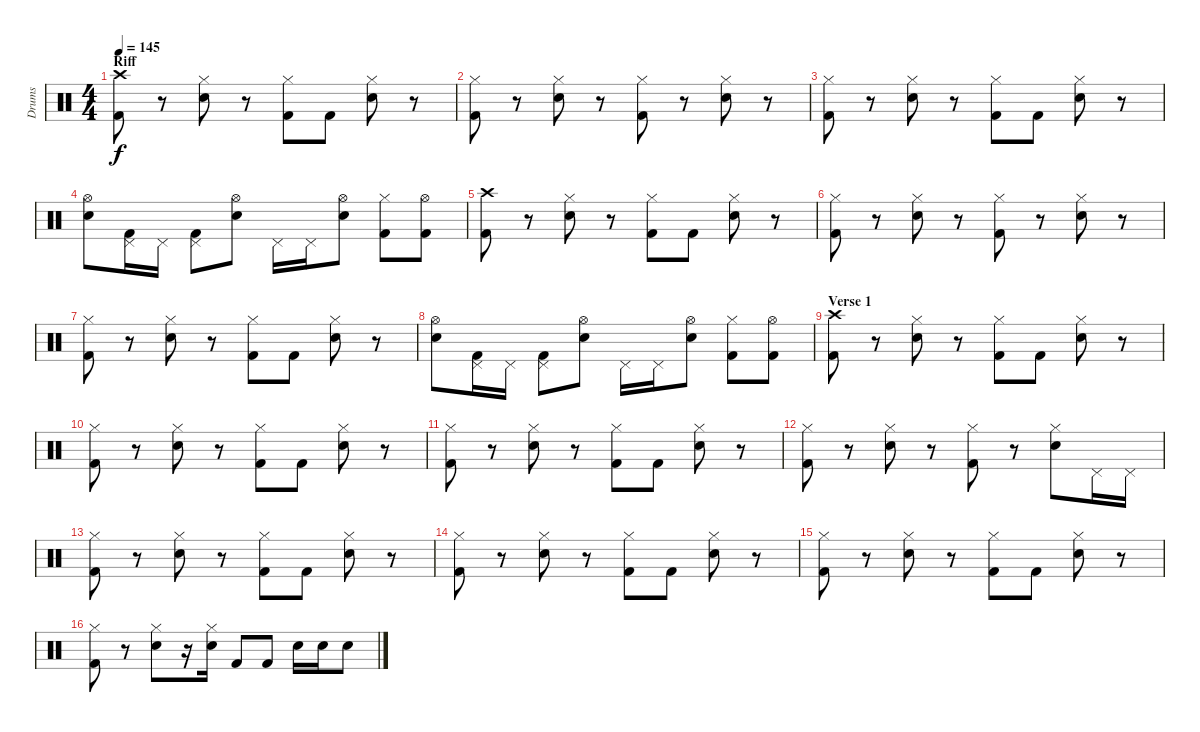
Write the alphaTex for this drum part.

\track ("Drums" "Drums") {instrument percussion}
\staff {score}
\articulation defaults
\ts (4 4)
\section ("" "Riff")
\tempo 145
\clef neutral
\ks c
("Crash high (hit)" "Kick (hit) 2").8{dy f} r.8 ("Hi-Hat (closed)" "Snare (hit) 2").8 r.8 ("Hi-Hat (closed)" "Kick (hit) 2").8 "Kick (hit) 2".8 ("Hi-Hat (closed)" "Snare (hit) 2").8 r.8 |
("Hi-Hat (closed)" "Kick (hit) 2").8 r.8 ("Hi-Hat (closed)" "Snare (hit) 2").8 r.8 ("Hi-Hat (closed)" "Kick (hit) 2").8 r.8 ("Hi-Hat (closed)" "Snare (hit) 2").8 r.8 |
("Hi-Hat (closed)" "Kick (hit) 2").8 r.8 ("Hi-Hat (closed)" "Snare (hit) 2").8 r.8 ("Hi-Hat (closed)" "Kick (hit) 2").8 "Kick (hit) 2".8 ("Hi-Hat (closed)" "Snare (hit) 2").8 r.8 |
("Hi-Hat (open)" "Snare (hit) 2").8 ("Pedal Hi-Hat (hit)" "Kick (hit) 2").16 "Pedal Hi-Hat (hit)".16 ("Pedal Hi-Hat (hit)" "Kick (hit) 2").8 ("Hi-Hat (open)" "Snare (hit) 2").8 "Pedal Hi-Hat (hit)".16 "Pedal Hi-Hat (hit)".16 ("Hi-Hat (open)" "Snare (hit) 2").8 ("Hi-Hat (closed)" "Kick (hit) 2").8 ("Hi-Hat (open)" "Kick (hit) 2").8 |
("Crash high (hit)" "Kick (hit) 2").8 r.8 ("Hi-Hat (closed)" "Snare (hit) 2").8 r.8 ("Hi-Hat (closed)" "Kick (hit) 2").8 "Kick (hit) 2".8 ("Hi-Hat (closed)" "Snare (hit) 2").8 r.8 |
("Hi-Hat (closed)" "Kick (hit) 2").8 r.8 ("Hi-Hat (closed)" "Snare (hit) 2").8 r.8 ("Hi-Hat (closed)" "Kick (hit) 2").8 r.8 ("Hi-Hat (closed)" "Snare (hit) 2").8 r.8 |
("Hi-Hat (closed)" "Kick (hit) 2").8 r.8 ("Hi-Hat (closed)" "Snare (hit) 2").8 r.8 ("Hi-Hat (closed)" "Kick (hit) 2").8 "Kick (hit) 2".8 ("Hi-Hat (closed)" "Snare (hit) 2").8 r.8 |
("Hi-Hat (open)" "Snare (hit) 2").8 ("Pedal Hi-Hat (hit)" "Kick (hit) 2").16 "Pedal Hi-Hat (hit)".16 ("Pedal Hi-Hat (hit)" "Kick (hit) 2").8 ("Hi-Hat (open)" "Snare (hit) 2").8 "Pedal Hi-Hat (hit)".16 "Pedal Hi-Hat (hit)".16 ("Hi-Hat (open)" "Snare (hit) 2").8 ("Hi-Hat (closed)" "Kick (hit) 2").8 ("Hi-Hat (open)" "Kick (hit) 2").8 |
\section ("" "Verse 1")
("Crash high (hit)" "Kick (hit) 2").8 r.8 ("Hi-Hat (closed)" "Snare (hit) 2").8 r.8 ("Hi-Hat (closed)" "Kick (hit) 2").8 "Kick (hit) 2".8 ("Hi-Hat (closed)" "Snare (hit) 2").8 r.8 |
("Hi-Hat (closed)" "Kick (hit) 2").8 r.8 ("Hi-Hat (closed)" "Snare (hit) 2").8 r.8 ("Hi-Hat (closed)" "Kick (hit) 2").8 "Kick (hit) 2".8 ("Hi-Hat (closed)" "Snare (hit) 2").8 r.8 |
("Hi-Hat (closed)" "Kick (hit) 2").8 r.8 ("Hi-Hat (closed)" "Snare (hit) 2").8 r.8 ("Hi-Hat (closed)" "Kick (hit) 2").8 "Kick (hit) 2".8 ("Hi-Hat (closed)" "Snare (hit) 2").8 r.8 |
("Hi-Hat (closed)" "Kick (hit) 2").8 r.8 ("Hi-Hat (closed)" "Snare (hit) 2").8 r.8 ("Hi-Hat (closed)" "Kick (hit) 2").8 r.8 ("Hi-Hat (closed)" "Snare (hit) 2").8 "Pedal Hi-Hat (hit)".16 "Pedal Hi-Hat (hit)".16 |
("Hi-Hat (closed)" "Kick (hit) 2").8 r.8 ("Hi-Hat (closed)" "Snare (hit) 2").8 r.8 ("Hi-Hat (closed)" "Kick (hit) 2").8 "Kick (hit) 2".8 ("Hi-Hat (closed)" "Snare (hit) 2").8 r.8 |
("Hi-Hat (closed)" "Kick (hit) 2").8 r.8 ("Hi-Hat (closed)" "Snare (hit) 2").8 r.8 ("Hi-Hat (closed)" "Kick (hit) 2").8 "Kick (hit) 2".8 ("Hi-Hat (closed)" "Snare (hit) 2").8 r.8 |
("Hi-Hat (closed)" "Kick (hit) 2").8 r.8 ("Hi-Hat (closed)" "Snare (hit) 2").8 r.8 ("Hi-Hat (closed)" "Kick (hit) 2").8 "Kick (hit) 2".8 ("Hi-Hat (closed)" "Snare (hit) 2").8 r.8 |
("Hi-Hat (closed)" "Kick (hit) 2").8 r.8 ("Hi-Hat (closed)" "Snare (hit) 2").8 r.16 ("Hi-Hat (closed)" "Snare (hit) 2").16 "Kick (hit) 2".8 "Kick (hit) 2".8 "Snare (hit) 2".16 "Snare (hit) 2".16 "Snare (hit) 2".8
